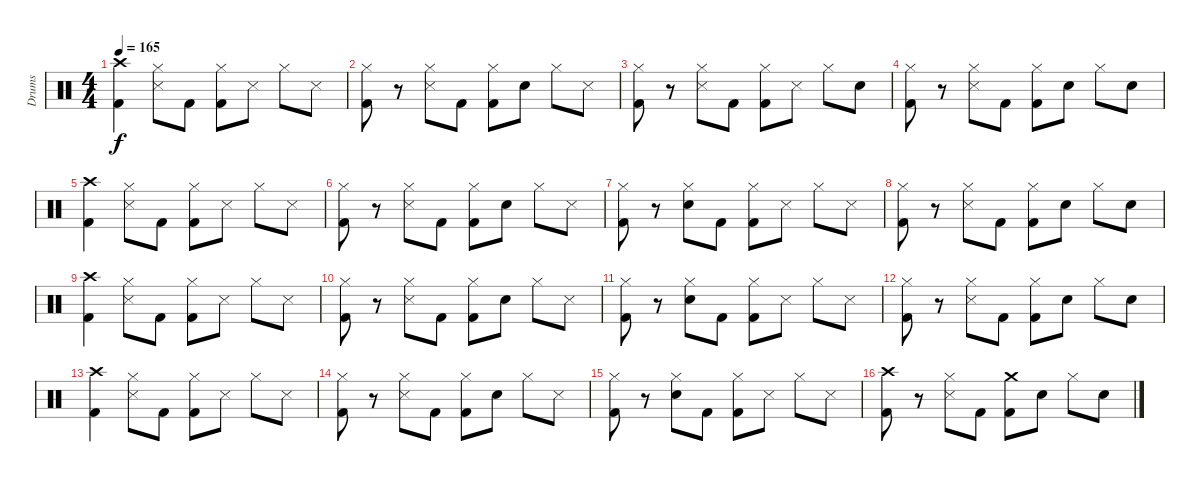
\track ("Drums" "Drums") {instrument percussion}
\staff {score}
\articulation defaults
\ts (4 4)
\tempo 165
\clef neutral
\ks c
("Kick (hit) 2" "Crash high (hit)").4{dy f} ("Metronome (hit)" "Hi-Hat (closed)").8 "Kick (hit) 2".8 ("Kick (hit) 2" "Hi-Hat (closed)").8 "Metronome (hit)".8 "Hi-Hat (closed)".8 "Metronome (hit)".8 |
("Hi-Hat (closed)" "Kick (hit) 2").8 r.8 ("Metronome (hit)" "Hi-Hat (closed)").8 "Kick (hit) 2".8 ("Kick (hit) 2" "Hi-Hat (closed)").8 "Snare (hit) 2".8 "Hi-Hat (closed)".8 "Metronome (hit)".8 |
("Hi-Hat (closed)" "Kick (hit) 2").8 r.8 ("Hi-Hat (closed)" "Metronome (hit)").8 "Kick (hit) 2".8 ("Kick (hit) 2" "Hi-Hat (closed)").8 "Metronome (hit)".8 "Hi-Hat (closed)".8 "Snare (hit) 2".8 |
("Hi-Hat (closed)" "Kick (hit) 2").8 r.8 ("Metronome (hit)" "Hi-Hat (closed)").8 "Kick (hit) 2".8 ("Kick (hit) 2" "Hi-Hat (closed)").8 "Snare (hit) 2".8 "Hi-Hat (closed)".8 "Snare (hit) 2".8 |
("Kick (hit) 2" "Crash high (hit)").4 ("Metronome (hit)" "Hi-Hat (closed)").8 "Kick (hit) 2".8 ("Kick (hit) 2" "Hi-Hat (closed)").8 "Metronome (hit)".8 "Hi-Hat (closed)".8 "Metronome (hit)".8 |
("Hi-Hat (closed)" "Kick (hit) 2").8 r.8 ("Metronome (hit)" "Hi-Hat (closed)").8 "Kick (hit) 2".8 ("Kick (hit) 2" "Hi-Hat (closed)").8 "Snare (hit) 2".8 "Hi-Hat (closed)".8 "Metronome (hit)".8 |
("Hi-Hat (closed)" "Kick (hit) 2").8 r.8 ("Hi-Hat (closed)" "Snare (hit) 2").8 "Kick (hit) 2".8 ("Kick (hit) 2" "Hi-Hat (closed)").8 "Metronome (hit)".8 "Hi-Hat (closed)".8 "Metronome (hit)".8 |
("Hi-Hat (closed)" "Kick (hit) 2").8 r.8 ("Metronome (hit)" "Hi-Hat (closed)").8 "Kick (hit) 2".8 ("Kick (hit) 2" "Hi-Hat (closed)").8 "Snare (hit) 2".8 "Hi-Hat (closed)".8 "Snare (hit) 2".8 |
("Kick (hit) 2" "Crash high (hit)").4 ("Metronome (hit)" "Hi-Hat (closed)").8 "Kick (hit) 2".8 ("Kick (hit) 2" "Hi-Hat (closed)").8 "Metronome (hit)".8 "Hi-Hat (closed)".8 "Metronome (hit)".8 |
("Hi-Hat (closed)" "Kick (hit) 2").8 r.8 ("Metronome (hit)" "Hi-Hat (closed)").8 "Kick (hit) 2".8 ("Kick (hit) 2" "Hi-Hat (closed)").8 "Snare (hit) 2".8 "Hi-Hat (closed)".8 "Metronome (hit)".8 |
("Hi-Hat (closed)" "Kick (hit) 2").8 r.8 ("Hi-Hat (closed)" "Snare (hit) 2").8 "Kick (hit) 2".8 ("Kick (hit) 2" "Hi-Hat (closed)").8 "Metronome (hit)".8 "Hi-Hat (closed)".8 "Metronome (hit)".8 |
("Hi-Hat (closed)" "Kick (hit) 2").8 r.8 ("Metronome (hit)" "Hi-Hat (closed)").8 "Kick (hit) 2".8 ("Kick (hit) 2" "Hi-Hat (closed)").8 "Snare (hit) 2".8 "Hi-Hat (closed)".8 "Snare (hit) 2".8 |
("Kick (hit) 2" "Crash high (hit)").4 ("Metronome (hit)" "Hi-Hat (closed)").8 "Kick (hit) 2".8 ("Kick (hit) 2" "Hi-Hat (closed)").8 "Metronome (hit)".8 "Hi-Hat (closed)".8 "Metronome (hit)".8 |
("Hi-Hat (closed)" "Kick (hit) 2").8 r.8 ("Metronome (hit)" "Hi-Hat (closed)").8 "Kick (hit) 2".8 ("Kick (hit) 2" "Hi-Hat (closed)").8 "Snare (hit) 2".8 "Hi-Hat (closed)".8 "Metronome (hit)".8 |
("Hi-Hat (closed)" "Kick (hit) 2").8 r.8 ("Hi-Hat (closed)" "Snare (hit) 2").8 "Kick (hit) 2".8 ("Kick (hit) 2" "Hi-Hat (closed)").8 "Metronome (hit)".8 "Hi-Hat (closed)".8 "Metronome (hit)".8 |
("Crash high (hit)" "Kick (hit) 2").8 r.8 ("Metronome (hit)" "Hi-Hat (closed)").8 "Kick (hit) 2".8 ("Kick (hit) 2" "Crash medium (hit)").8 "Snare (hit) 2".8 "Hi-Hat (closed)".8 "Snare (hit) 2".8
